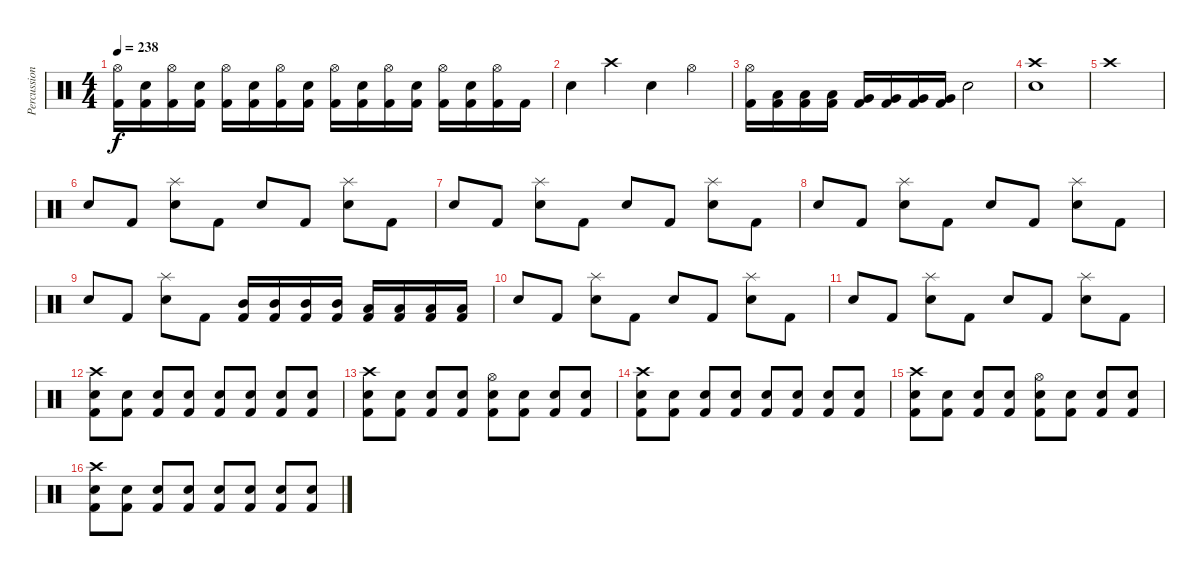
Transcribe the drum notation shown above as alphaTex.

\track ("Percussion" "Percussion") {instrument percussion}
\staff {score}
\articulation defaults
\ts (4 4)
\tempo 238
\clef neutral
\ks c
("Hi-Hat (open)" "Kick (hit) 2").16{dy f} ("Electric Snare (hit)" "Kick (hit) 2").16 ("Hi-Hat (open)" "Kick (hit) 2").16 ("Electric Snare (hit)" "Kick (hit) 2").16 ("Hi-Hat (open)" "Kick (hit) 2").16 ("Electric Snare (hit)" "Kick (hit) 2").16 ("Hi-Hat (open)" "Kick (hit) 2").16 ("Electric Snare (hit)" "Kick (hit) 2").16 ("Hi-Hat (open)" "Kick (hit) 2").16 ("Electric Snare (hit)" "Kick (hit) 2").16 ("Hi-Hat (open)" "Kick (hit) 2").16 ("Electric Snare (hit)" "Kick (hit) 2").16 ("Hi-Hat (open)" "Kick (hit) 2").16 ("Electric Snare (hit)" "Kick (hit) 2").16 ("Hi-Hat (open)" "Kick (hit) 2").16 "Kick (hit) 2".16 |
"Electric Snare (hit)".4 "Crash high (hit)".4 "Electric Snare (hit)".4 "Hi-Hat (open)".4 |
("Hi-Hat (open)" "Kick (hit) 2").16 ("Low Tom (hit)" "Kick (hit) 2").16 ("Low Tom (hit)" "Kick (hit) 2").16 ("Low Tom (hit)" "Kick (hit) 2").16 ("Very Low Tom (hit)" "Kick (hit) 2").16 ("Very Low Tom (hit)" "Kick (hit) 2").16 ("Very Low Tom (hit)" "Kick (hit) 2").16 ("Very Low Tom (hit)" "Kick (hit) 2").16 "Electric Snare (hit)".2 |
("Crash high (hit)" "Electric Snare (hit)").1 |
"Crash high (hit)".1 |
"Electric Snare (hit)".8 "Kick (hit) 2".8 ("Splash (hit)" "Electric Snare (hit)").8 "Kick (hit) 2".8 "Electric Snare (hit)".8 "Kick (hit) 2".8 ("Splash (hit)" "Electric Snare (hit)").8 "Kick (hit) 2".8 |
"Electric Snare (hit)".8 "Kick (hit) 2".8 ("Splash (hit)" "Electric Snare (hit)").8 "Kick (hit) 2".8 "Electric Snare (hit)".8 "Kick (hit) 2".8 ("Splash (hit)" "Electric Snare (hit)").8 "Kick (hit) 2".8 |
"Electric Snare (hit)".8 "Kick (hit) 2".8 ("Splash (hit)" "Electric Snare (hit)").8 "Kick (hit) 2".8 "Electric Snare (hit)".8 "Kick (hit) 2".8 ("Splash (hit)" "Electric Snare (hit)").8 "Kick (hit) 2".8 |
"Electric Snare (hit)".8 "Kick (hit) 2".8 ("Splash (hit)" "Electric Snare (hit)").8 "Kick (hit) 2".8 ("Mid Tom (hit)" "Kick (hit) 2").16 ("Mid Tom (hit)" "Kick (hit) 2").16 ("Mid Tom (hit)" "Kick (hit) 2").16 ("Mid Tom (hit)" "Kick (hit) 2").16 ("Low Tom (hit)" "Kick (hit) 2").16 ("Low Tom (hit)" "Kick (hit) 2").16 ("Low Tom (hit)" "Kick (hit) 2").16 ("Low Tom (hit)" "Kick (hit) 2").16 |
"Electric Snare (hit)".8 "Kick (hit) 2".8 ("Splash (hit)" "Electric Snare (hit)").8 "Kick (hit) 2".8 "Electric Snare (hit)".8 "Kick (hit) 2".8 ("Splash (hit)" "Electric Snare (hit)").8 "Kick (hit) 2".8 |
"Electric Snare (hit)".8 "Kick (hit) 2".8 ("Splash (hit)" "Electric Snare (hit)").8 "Kick (hit) 2".8 "Electric Snare (hit)".8 "Kick (hit) 2".8 ("Splash (hit)" "Electric Snare (hit)").8 "Kick (hit) 2".8 |
("Crash high (hit)" "Electric Snare (hit)" "Kick (hit) 2").8 ("Electric Snare (hit)" "Kick (hit) 2").8 ("Electric Snare (hit)" "Kick (hit) 2").8 ("Electric Snare (hit)" "Kick (hit) 2").8 ("Electric Snare (hit)" "Kick (hit) 2").8 ("Electric Snare (hit)" "Kick (hit) 2").8 ("Electric Snare (hit)" "Kick (hit) 2").8 ("Electric Snare (hit)" "Kick (hit) 2").8 |
("Crash high (hit)" "Electric Snare (hit)" "Kick (hit) 2").8 ("Electric Snare (hit)" "Kick (hit) 2").8 ("Electric Snare (hit)" "Kick (hit) 2").8 ("Electric Snare (hit)" "Kick (hit) 2").8 ("Hi-Hat (open)" "Electric Snare (hit)" "Kick (hit) 2").8 ("Electric Snare (hit)" "Kick (hit) 2").8 ("Electric Snare (hit)" "Kick (hit) 2").8 ("Electric Snare (hit)" "Kick (hit) 2").8 |
("Crash high (hit)" "Electric Snare (hit)" "Kick (hit) 2").8 ("Electric Snare (hit)" "Kick (hit) 2").8 ("Electric Snare (hit)" "Kick (hit) 2").8 ("Electric Snare (hit)" "Kick (hit) 2").8 ("Electric Snare (hit)" "Kick (hit) 2").8 ("Electric Snare (hit)" "Kick (hit) 2").8 ("Electric Snare (hit)" "Kick (hit) 2").8 ("Electric Snare (hit)" "Kick (hit) 2").8 |
("Crash high (hit)" "Electric Snare (hit)" "Kick (hit) 2").8 ("Electric Snare (hit)" "Kick (hit) 2").8 ("Electric Snare (hit)" "Kick (hit) 2").8 ("Electric Snare (hit)" "Kick (hit) 2").8 ("Hi-Hat (open)" "Electric Snare (hit)" "Kick (hit) 2").8 ("Electric Snare (hit)" "Kick (hit) 2").8 ("Electric Snare (hit)" "Kick (hit) 2").8 ("Electric Snare (hit)" "Kick (hit) 2").8 |
("Crash high (hit)" "Electric Snare (hit)" "Kick (hit) 2").8 ("Electric Snare (hit)" "Kick (hit) 2").8 ("Electric Snare (hit)" "Kick (hit) 2").8 ("Electric Snare (hit)" "Kick (hit) 2").8 ("Electric Snare (hit)" "Kick (hit) 2").8 ("Electric Snare (hit)" "Kick (hit) 2").8 ("Electric Snare (hit)" "Kick (hit) 2").8 ("Electric Snare (hit)" "Kick (hit) 2").8
